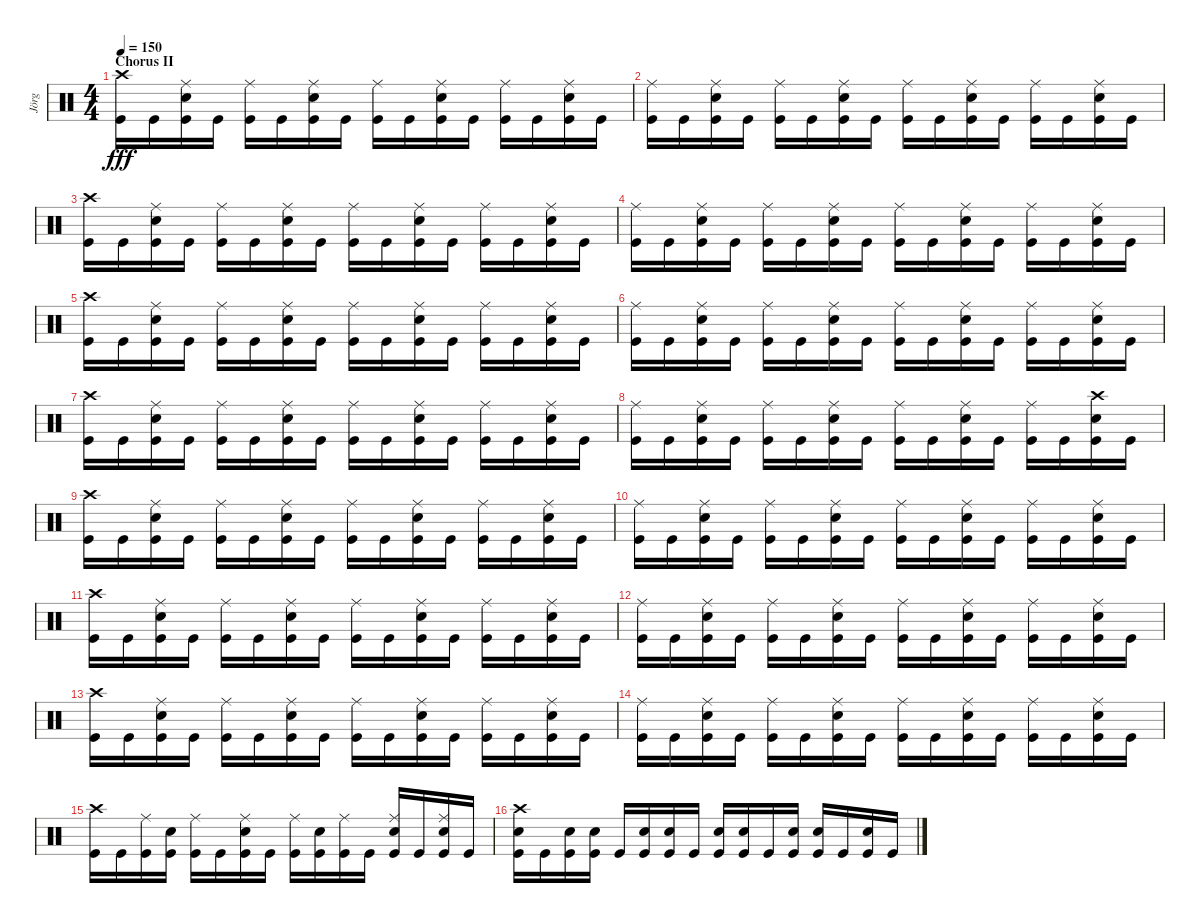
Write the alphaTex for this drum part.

\track ("Jörg" "Jörg") {instrument percussion}
\staff {score}
\articulation defaults
\ts (4 4)
\section ("" "Chorus II")
\tempo 150
\clef neutral
\ks c
("Crash high (hit)" "Kick (hit)").16{dy fff} "Kick (hit)".16 ("Ride (middle)" "Snare (hit) 2" "Kick (hit)").16 "Kick (hit)".16 ("Ride (middle)" "Kick (hit)").16 "Kick (hit)".16 ("Ride (middle)" "Snare (hit) 2" "Kick (hit)").16 "Kick (hit)".16 ("Ride (middle)" "Kick (hit)").16 "Kick (hit)".16 ("Ride (middle)" "Snare (hit) 2" "Kick (hit)").16 "Kick (hit)".16 ("Ride (middle)" "Kick (hit)").16 "Kick (hit)".16 ("Ride (middle)" "Snare (hit) 2" "Kick (hit)").16 "Kick (hit)".16 |
("Ride (middle)" "Kick (hit)").16 "Kick (hit)".16 ("Ride (middle)" "Snare (hit) 2" "Kick (hit)").16 "Kick (hit)".16 ("Ride (middle)" "Kick (hit)").16 "Kick (hit)".16 ("Ride (middle)" "Snare (hit) 2" "Kick (hit)").16 "Kick (hit)".16 ("Ride (middle)" "Kick (hit)").16 "Kick (hit)".16 ("Ride (middle)" "Snare (hit) 2" "Kick (hit)").16 "Kick (hit)".16 ("Ride (middle)" "Kick (hit)").16 "Kick (hit)".16 ("Ride (middle)" "Snare (hit) 2" "Kick (hit)").16 "Kick (hit)".16 |
("Crash high (hit)" "Kick (hit)").16 "Kick (hit)".16 ("Ride (middle)" "Snare (hit) 2" "Kick (hit)").16 "Kick (hit)".16 ("Ride (middle)" "Kick (hit)").16 "Kick (hit)".16 ("Ride (middle)" "Snare (hit) 2" "Kick (hit)").16 "Kick (hit)".16 ("Ride (middle)" "Kick (hit)").16 "Kick (hit)".16 ("Ride (middle)" "Snare (hit) 2" "Kick (hit)").16 "Kick (hit)".16 ("Ride (middle)" "Kick (hit)").16 "Kick (hit)".16 ("Ride (middle)" "Snare (hit) 2" "Kick (hit)").16 "Kick (hit)".16 |
("Ride (middle)" "Kick (hit)").16 "Kick (hit)".16 ("Ride (middle)" "Snare (hit) 2" "Kick (hit)").16 "Kick (hit)".16 ("Ride (middle)" "Kick (hit)").16 "Kick (hit)".16 ("Ride (middle)" "Snare (hit) 2" "Kick (hit)").16 "Kick (hit)".16 ("Ride (middle)" "Kick (hit)").16 "Kick (hit)".16 ("Ride (middle)" "Snare (hit) 2" "Kick (hit)").16 "Kick (hit)".16 ("Ride (middle)" "Kick (hit)").16 "Kick (hit)".16 ("Ride (middle)" "Snare (hit) 2" "Kick (hit)").16 "Kick (hit)".16 |
("Crash high (hit)" "Kick (hit)").16 "Kick (hit)".16 ("Ride (middle)" "Snare (hit) 2" "Kick (hit)").16 "Kick (hit)".16 ("Ride (middle)" "Kick (hit)").16 "Kick (hit)".16 ("Ride (middle)" "Snare (hit) 2" "Kick (hit)").16 "Kick (hit)".16 ("Ride (middle)" "Kick (hit)").16 "Kick (hit)".16 ("Ride (middle)" "Snare (hit) 2" "Kick (hit)").16 "Kick (hit)".16 ("Ride (middle)" "Kick (hit)").16 "Kick (hit)".16 ("Ride (middle)" "Snare (hit) 2" "Kick (hit)").16 "Kick (hit)".16 |
("Ride (middle)" "Kick (hit)").16 "Kick (hit)".16 ("Ride (middle)" "Snare (hit) 2" "Kick (hit)").16 "Kick (hit)".16 ("Ride (middle)" "Kick (hit)").16 "Kick (hit)".16 ("Ride (middle)" "Snare (hit) 2" "Kick (hit)").16 "Kick (hit)".16 ("Ride (middle)" "Kick (hit)").16 "Kick (hit)".16 ("Ride (middle)" "Snare (hit) 2" "Kick (hit)").16 "Kick (hit)".16 ("Ride (middle)" "Kick (hit)").16 "Kick (hit)".16 ("Ride (middle)" "Snare (hit) 2" "Kick (hit)").16 "Kick (hit)".16 |
("Crash high (hit)" "Kick (hit)").16 "Kick (hit)".16 ("Ride (middle)" "Snare (hit) 2" "Kick (hit)").16 "Kick (hit)".16 ("Ride (middle)" "Kick (hit)").16 "Kick (hit)".16 ("Ride (middle)" "Snare (hit) 2" "Kick (hit)").16 "Kick (hit)".16 ("Ride (middle)" "Kick (hit)").16 "Kick (hit)".16 ("Ride (middle)" "Snare (hit) 2" "Kick (hit)").16 "Kick (hit)".16 ("Ride (middle)" "Kick (hit)").16 "Kick (hit)".16 ("Ride (middle)" "Snare (hit) 2" "Kick (hit)").16 "Kick (hit)".16 |
("Ride (middle)" "Kick (hit)").16 "Kick (hit)".16 ("Ride (middle)" "Snare (hit) 2" "Kick (hit)").16 "Kick (hit)".16 ("Ride (middle)" "Kick (hit)").16 "Kick (hit)".16 ("Ride (middle)" "Snare (hit) 2" "Kick (hit)").16 "Kick (hit)".16 ("Ride (middle)" "Kick (hit)").16 "Kick (hit)".16 ("Ride (middle)" "Snare (hit) 2" "Kick (hit)").16 "Kick (hit)".16 ("Ride (middle)" "Kick (hit)").16 "Kick (hit)".16 ("Crash high (hit)" "Snare (hit) 2" "Kick (hit)").16 "Kick (hit)".16 |
("Crash high (hit)" "Kick (hit)").16 "Kick (hit)".16 ("Ride (middle)" "Snare (hit) 2" "Kick (hit)").16 "Kick (hit)".16 ("Ride (middle)" "Kick (hit)").16 "Kick (hit)".16 ("Ride (middle)" "Snare (hit) 2" "Kick (hit)").16 "Kick (hit)".16 ("Ride (middle)" "Kick (hit)").16 "Kick (hit)".16 ("Ride (middle)" "Snare (hit) 2" "Kick (hit)").16 "Kick (hit)".16 ("Ride (middle)" "Kick (hit)").16 "Kick (hit)".16 ("Ride (middle)" "Snare (hit) 2" "Kick (hit)").16 "Kick (hit)".16 |
("Ride (middle)" "Kick (hit)").16 "Kick (hit)".16 ("Ride (middle)" "Snare (hit) 2" "Kick (hit)").16 "Kick (hit)".16 ("Ride (middle)" "Kick (hit)").16 "Kick (hit)".16 ("Ride (middle)" "Snare (hit) 2" "Kick (hit)").16 "Kick (hit)".16 ("Ride (middle)" "Kick (hit)").16 "Kick (hit)".16 ("Ride (middle)" "Snare (hit) 2" "Kick (hit)").16 "Kick (hit)".16 ("Ride (middle)" "Kick (hit)").16 "Kick (hit)".16 ("Ride (middle)" "Snare (hit) 2" "Kick (hit)").16 "Kick (hit)".16 |
("Crash high (hit)" "Kick (hit)").16 "Kick (hit)".16 ("Ride (middle)" "Snare (hit) 2" "Kick (hit)").16 "Kick (hit)".16 ("Ride (middle)" "Kick (hit)").16 "Kick (hit)".16 ("Ride (middle)" "Snare (hit) 2" "Kick (hit)").16 "Kick (hit)".16 ("Ride (middle)" "Kick (hit)").16 "Kick (hit)".16 ("Ride (middle)" "Snare (hit) 2" "Kick (hit)").16 "Kick (hit)".16 ("Ride (middle)" "Kick (hit)").16 "Kick (hit)".16 ("Ride (middle)" "Snare (hit) 2" "Kick (hit)").16 "Kick (hit)".16 |
("Ride (middle)" "Kick (hit)").16 "Kick (hit)".16 ("Ride (middle)" "Snare (hit) 2" "Kick (hit)").16 "Kick (hit)".16 ("Ride (middle)" "Kick (hit)").16 "Kick (hit)".16 ("Ride (middle)" "Snare (hit) 2" "Kick (hit)").16 "Kick (hit)".16 ("Ride (middle)" "Kick (hit)").16 "Kick (hit)".16 ("Ride (middle)" "Snare (hit) 2" "Kick (hit)").16 "Kick (hit)".16 ("Ride (middle)" "Kick (hit)").16 "Kick (hit)".16 ("Ride (middle)" "Snare (hit) 2" "Kick (hit)").16 "Kick (hit)".16 |
("Crash high (hit)" "Kick (hit)").16 "Kick (hit)".16 ("Ride (middle)" "Snare (hit) 2" "Kick (hit)").16 "Kick (hit)".16 ("Ride (middle)" "Kick (hit)").16 "Kick (hit)".16 ("Ride (middle)" "Snare (hit) 2" "Kick (hit)").16 "Kick (hit)".16 ("Ride (middle)" "Kick (hit)").16 "Kick (hit)".16 ("Ride (middle)" "Snare (hit) 2" "Kick (hit)").16 "Kick (hit)".16 ("Ride (middle)" "Kick (hit)").16 "Kick (hit)".16 ("Ride (middle)" "Snare (hit) 2" "Kick (hit)").16 "Kick (hit)".16 |
("Ride (middle)" "Kick (hit)").16 "Kick (hit)".16 ("Ride (middle)" "Snare (hit) 2" "Kick (hit)").16 "Kick (hit)".16 ("Ride (middle)" "Kick (hit)").16 "Kick (hit)".16 ("Ride (middle)" "Snare (hit) 2" "Kick (hit)").16 "Kick (hit)".16 ("Ride (middle)" "Kick (hit)").16 "Kick (hit)".16 ("Ride (middle)" "Snare (hit) 2" "Kick (hit)").16 "Kick (hit)".16 ("Ride (middle)" "Kick (hit)").16 "Kick (hit)".16 ("Ride (middle)" "Snare (hit) 2" "Kick (hit)").16 "Kick (hit)".16 |
("Crash high (hit)" "Kick (hit)").16 "Kick (hit)".16 ("Ride (middle)" "Kick (hit)").16 ("Snare (hit) 2" "Kick (hit)").16 ("Ride (middle)" "Kick (hit)").16 "Kick (hit)".16 ("Snare (hit) 2" "Ride (middle)" "Kick (hit)").16 "Kick (hit)".16 ("Ride (middle)" "Kick (hit)").16 ("Snare (hit) 2" "Kick (hit)").16 ("Ride (middle)" "Kick (hit)").16 "Kick (hit)".16 ("Snare (hit) 2" "Ride (middle)" "Kick (hit)").16 "Kick (hit)".16 ("Snare (hit) 2" "Ride (middle)" "Kick (hit)").16 "Kick (hit)".16 |
("Crash high (hit)" "Snare (hit) 2" "Kick (hit)").16 "Kick (hit)".16 ("Snare (hit) 2" "Kick (hit)").16 ("Snare (hit) 2" "Kick (hit)").16 "Kick (hit)".16 ("Snare (hit) 2" "Kick (hit)").16 ("Snare (hit) 2" "Kick (hit)").16 "Kick (hit)".16 ("Snare (hit) 2" "Kick (hit)").16 ("Snare (hit) 2" "Kick (hit)").16 "Kick (hit)".16 ("Snare (hit) 2" "Kick (hit)").16 ("Snare (hit) 2" "Kick (hit)").16 "Kick (hit)".16 ("Snare (hit) 2" "Kick (hit)").16 "Kick (hit)".16
